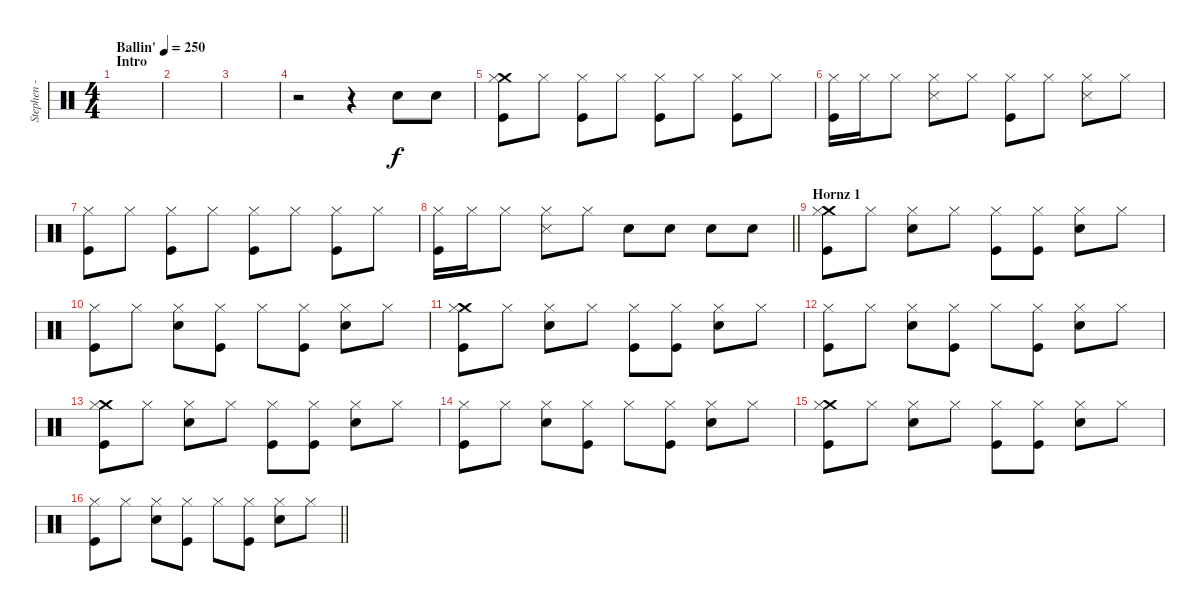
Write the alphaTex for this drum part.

\track ("Stephen - Drums" "Stephen - ") {instrument percussion}
\staff {score}
\articulation defaults
\ts (4 4)
\section ("" "Intro")
\tempo (250 "Ballin'")
\clef neutral
\ks c
|
|
|
r.2 r.4 "Snare (hit) 2".8 "Snare (hit) 2".8 |
("Crash medium (hit)" "Hi-Hat (closed)" "Kick (hit)").8 "Hi-Hat (closed)".8 ("Hi-Hat (closed)" "Kick (hit)").8 "Hi-Hat (closed)".8 ("Hi-Hat (closed)" "Kick (hit)").8 "Hi-Hat (closed)".8 ("Hi-Hat (closed)" "Kick (hit)").8 "Hi-Hat (closed)".8 |
("Hi-Hat (closed)" "Kick (hit)").16 "Hi-Hat (closed)".16 "Hi-Hat (closed)".8 ("Hi-Hat (closed)" "Snare (side stick) 3").8 "Hi-Hat (closed)".8 ("Hi-Hat (closed)" "Kick (hit)").8 "Hi-Hat (closed)".8 ("Hi-Hat (closed)" "Snare (side stick) 3").8 "Hi-Hat (closed)".8 |
("Hi-Hat (closed)" "Kick (hit)").8 "Hi-Hat (closed)".8 ("Hi-Hat (closed)" "Kick (hit)").8 "Hi-Hat (closed)".8 ("Hi-Hat (closed)" "Kick (hit)").8 "Hi-Hat (closed)".8 ("Hi-Hat (closed)" "Kick (hit)").8 "Hi-Hat (closed)".8 |
\barLineRight lightlight
("Hi-Hat (closed)" "Kick (hit)").16 "Hi-Hat (closed)".16 "Hi-Hat (closed)".8 ("Hi-Hat (closed)" "Snare (side stick) 3").8 "Hi-Hat (closed)".8 "Snare (hit) 2".8 "Snare (hit) 2".8 "Snare (hit) 2".8 "Snare (hit) 2".8 |
\section ("" "Hornz 1")
("Crash medium (hit)" "Hi-Hat (closed)" "Kick (hit)").8 "Hi-Hat (closed)".8 ("Hi-Hat (closed)" "Snare (hit) 2").8 "Hi-Hat (closed)".8 ("Hi-Hat (closed)" "Kick (hit)").8 ("Hi-Hat (closed)" "Kick (hit)").8 ("Hi-Hat (closed)" "Snare (hit) 2").8 "Hi-Hat (closed)".8 |
("Hi-Hat (closed)" "Kick (hit)").8 "Hi-Hat (closed)".8 ("Hi-Hat (closed)" "Snare (hit) 2").8 ("Hi-Hat (closed)" "Kick (hit)").8 "Hi-Hat (closed)".8 ("Hi-Hat (closed)" "Kick (hit)").8 ("Hi-Hat (closed)" "Snare (hit) 2").8 "Hi-Hat (closed)".8 |
("Crash medium (hit)" "Hi-Hat (closed)" "Kick (hit)").8 "Hi-Hat (closed)".8 ("Hi-Hat (closed)" "Snare (hit) 2").8 "Hi-Hat (closed)".8 ("Hi-Hat (closed)" "Kick (hit)").8 ("Hi-Hat (closed)" "Kick (hit)").8 ("Hi-Hat (closed)" "Snare (hit) 2").8 "Hi-Hat (closed)".8 |
("Hi-Hat (closed)" "Kick (hit)").8 "Hi-Hat (closed)".8 ("Hi-Hat (closed)" "Snare (hit) 2").8 ("Hi-Hat (closed)" "Kick (hit)").8 "Hi-Hat (closed)".8 ("Hi-Hat (closed)" "Kick (hit)").8 ("Hi-Hat (closed)" "Snare (hit) 2").8 "Hi-Hat (closed)".8 |
("Crash medium (hit)" "Hi-Hat (closed)" "Kick (hit)").8 "Hi-Hat (closed)".8 ("Hi-Hat (closed)" "Snare (hit) 2").8 "Hi-Hat (closed)".8 ("Hi-Hat (closed)" "Kick (hit)").8 ("Hi-Hat (closed)" "Kick (hit)").8 ("Hi-Hat (closed)" "Snare (hit) 2").8 "Hi-Hat (closed)".8 |
("Hi-Hat (closed)" "Kick (hit)").8 "Hi-Hat (closed)".8 ("Hi-Hat (closed)" "Snare (hit) 2").8 ("Hi-Hat (closed)" "Kick (hit)").8 "Hi-Hat (closed)".8 ("Hi-Hat (closed)" "Kick (hit)").8 ("Hi-Hat (closed)" "Snare (hit) 2").8 "Hi-Hat (closed)".8 |
("Crash medium (hit)" "Hi-Hat (closed)" "Kick (hit)").8 "Hi-Hat (closed)".8 ("Hi-Hat (closed)" "Snare (hit) 2").8 "Hi-Hat (closed)".8 ("Hi-Hat (closed)" "Kick (hit)").8 ("Hi-Hat (closed)" "Kick (hit)").8 ("Hi-Hat (closed)" "Snare (hit) 2").8 "Hi-Hat (closed)".8 |
\barLineRight lightlight
("Hi-Hat (closed)" "Kick (hit)").8 "Hi-Hat (closed)".8 ("Hi-Hat (closed)" "Snare (hit) 2").8 ("Hi-Hat (closed)" "Kick (hit)").8 "Hi-Hat (closed)".8 ("Hi-Hat (closed)" "Kick (hit)").8 ("Hi-Hat (closed)" "Snare (hit) 2").8 "Hi-Hat (closed)".8
